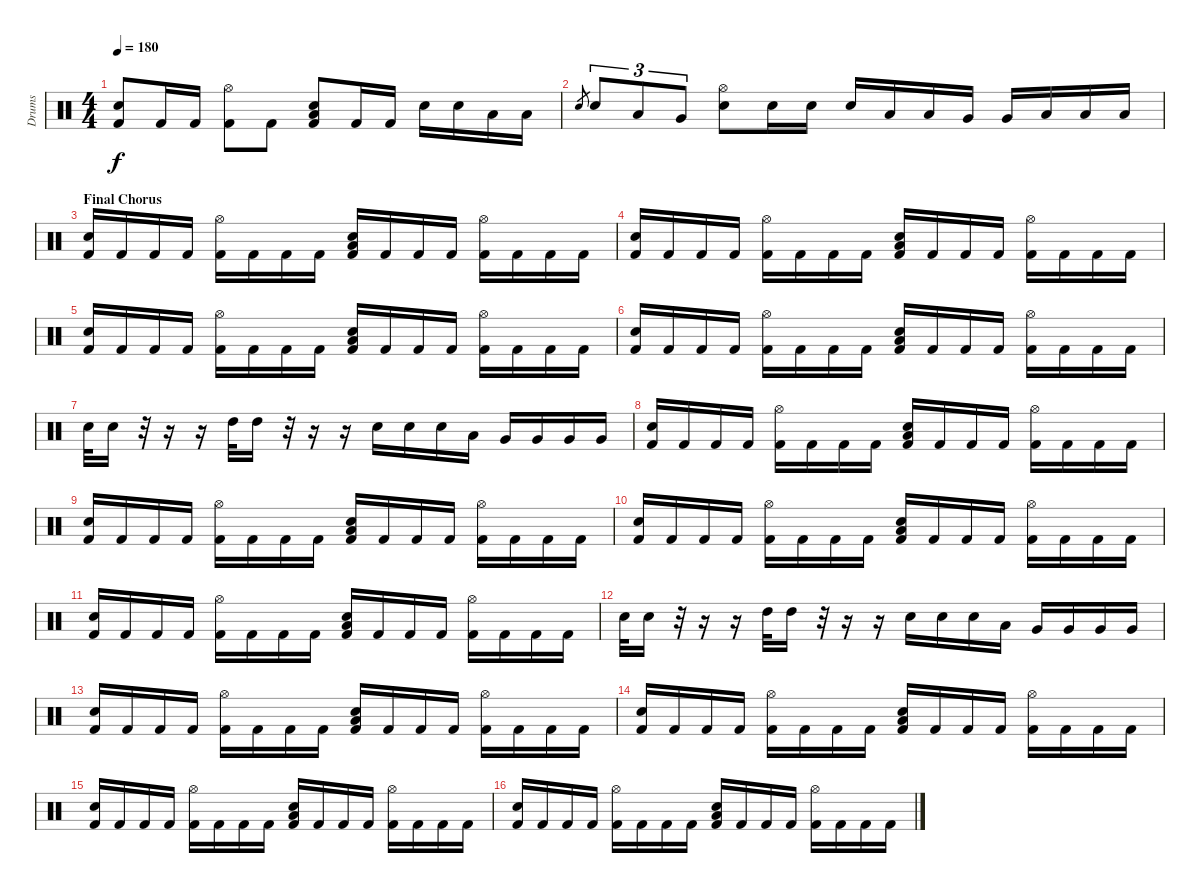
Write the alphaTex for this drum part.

\track ("Drums" "Drums") {instrument percussion}
\staff {score}
\articulation defaults
\ts (4 4)
\tempo 180
\clef neutral
\ks c
("Kick (hit) 2" "Electric Snare (hit)").8{dy f} "Kick (hit) 2".16 "Kick (hit) 2".16 ("Kick (hit) 2" "Hi-Hat (open)").8 "Kick (hit) 2".8 ("Kick (hit) 2" "Low Tom (hit)" "Electric Snare (hit)").8 "Kick (hit) 2".16 "Kick (hit) 2".16 "Electric Snare (hit)".16 "Electric Snare (hit)".16 "Low Tom (hit)".16 "Low Tom (hit)".16 |
"Electric Snare (hit)".8{gr} "Electric Snare (hit)".8{tu (3 2)} "Low Tom (hit)".8{tu (3 2)} "Very Low Tom (hit)".8{tu (3 2)} ("Electric Snare (hit)" "Hi-Hat (open)").8 "Electric Snare (hit)".16 "Electric Snare (hit)".16 "Electric Snare (hit)".16 "Low Tom (hit)".16 "Low Tom (hit)".16 "Very Low Tom (hit)".16 "Very Low Tom (hit)".16 "Low Floor Tom (hit)".16 "Low Floor Tom (hit)".16 "Low Floor Tom (hit)".16 |
\section ("" "Final Chorus")
("Kick (hit) 2" "Electric Snare (hit)").16 "Kick (hit) 2".16 "Kick (hit) 2".16 "Kick (hit) 2".16 ("Kick (hit) 2" "Hi-Hat (open)").16 "Kick (hit) 2".16 "Kick (hit) 2".16 "Kick (hit) 2".16 ("Kick (hit) 2" "Low Tom (hit)" "Electric Snare (hit)").16 "Kick (hit) 2".16 "Kick (hit) 2".16 "Kick (hit) 2".16 ("Kick (hit) 2" "Hi-Hat (open)").16 "Kick (hit) 2".16 "Kick (hit) 2".16 "Kick (hit) 2".16 |
("Kick (hit) 2" "Electric Snare (hit)").16 "Kick (hit) 2".16 "Kick (hit) 2".16 "Kick (hit) 2".16 ("Kick (hit) 2" "Hi-Hat (open)").16 "Kick (hit) 2".16 "Kick (hit) 2".16 "Kick (hit) 2".16 ("Kick (hit) 2" "Low Tom (hit)" "Electric Snare (hit)").16 "Kick (hit) 2".16 "Kick (hit) 2".16 "Kick (hit) 2".16 ("Kick (hit) 2" "Hi-Hat (open)").16 "Kick (hit) 2".16 "Kick (hit) 2".16 "Kick (hit) 2".16 |
("Kick (hit) 2" "Electric Snare (hit)").16 "Kick (hit) 2".16 "Kick (hit) 2".16 "Kick (hit) 2".16 ("Kick (hit) 2" "Hi-Hat (open)").16 "Kick (hit) 2".16 "Kick (hit) 2".16 "Kick (hit) 2".16 ("Kick (hit) 2" "Low Tom (hit)" "Electric Snare (hit)").16 "Kick (hit) 2".16 "Kick (hit) 2".16 "Kick (hit) 2".16 ("Kick (hit) 2" "Hi-Hat (open)").16 "Kick (hit) 2".16 "Kick (hit) 2".16 "Kick (hit) 2".16 |
("Kick (hit) 2" "Electric Snare (hit)").16 "Kick (hit) 2".16 "Kick (hit) 2".16 "Kick (hit) 2".16 ("Kick (hit) 2" "Hi-Hat (open)").16 "Kick (hit) 2".16 "Kick (hit) 2".16 "Kick (hit) 2".16 ("Kick (hit) 2" "Low Tom (hit)" "Electric Snare (hit)").16 "Kick (hit) 2".16 "Kick (hit) 2".16 "Kick (hit) 2".16 ("Kick (hit) 2" "Hi-Hat (open)").16 "Kick (hit) 2".16 "Kick (hit) 2".16 "Kick (hit) 2".16 |
"Electric Snare (hit)".32 "Electric Snare (hit)".16 r.32 r.16 r.16 "High Tom (hit)".32 "High Tom (hit)".16 r.32 r.16 r.16 "Electric Snare (hit)".16 "Electric Snare (hit)".16 "Electric Snare (hit)".16 "Low Tom (hit)".16 "Very Low Tom (hit)".16 "Very Low Tom (hit)".16 "Very Low Tom (hit)".16 "Very Low Tom (hit)".16 |
("Kick (hit) 2" "Electric Snare (hit)").16 "Kick (hit) 2".16 "Kick (hit) 2".16 "Kick (hit) 2".16 ("Kick (hit) 2" "Hi-Hat (open)").16 "Kick (hit) 2".16 "Kick (hit) 2".16 "Kick (hit) 2".16 ("Kick (hit) 2" "Low Tom (hit)" "Electric Snare (hit)").16 "Kick (hit) 2".16 "Kick (hit) 2".16 "Kick (hit) 2".16 ("Kick (hit) 2" "Hi-Hat (open)").16 "Kick (hit) 2".16 "Kick (hit) 2".16 "Kick (hit) 2".16 |
("Kick (hit) 2" "Electric Snare (hit)").16 "Kick (hit) 2".16 "Kick (hit) 2".16 "Kick (hit) 2".16 ("Kick (hit) 2" "Hi-Hat (open)").16 "Kick (hit) 2".16 "Kick (hit) 2".16 "Kick (hit) 2".16 ("Kick (hit) 2" "Low Tom (hit)" "Electric Snare (hit)").16 "Kick (hit) 2".16 "Kick (hit) 2".16 "Kick (hit) 2".16 ("Kick (hit) 2" "Hi-Hat (open)").16 "Kick (hit) 2".16 "Kick (hit) 2".16 "Kick (hit) 2".16 |
("Kick (hit) 2" "Electric Snare (hit)").16 "Kick (hit) 2".16 "Kick (hit) 2".16 "Kick (hit) 2".16 ("Kick (hit) 2" "Hi-Hat (open)").16 "Kick (hit) 2".16 "Kick (hit) 2".16 "Kick (hit) 2".16 ("Kick (hit) 2" "Low Tom (hit)" "Electric Snare (hit)").16 "Kick (hit) 2".16 "Kick (hit) 2".16 "Kick (hit) 2".16 ("Kick (hit) 2" "Hi-Hat (open)").16 "Kick (hit) 2".16 "Kick (hit) 2".16 "Kick (hit) 2".16 |
("Kick (hit) 2" "Electric Snare (hit)").16 "Kick (hit) 2".16 "Kick (hit) 2".16 "Kick (hit) 2".16 ("Kick (hit) 2" "Hi-Hat (open)").16 "Kick (hit) 2".16 "Kick (hit) 2".16 "Kick (hit) 2".16 ("Kick (hit) 2" "Low Tom (hit)" "Electric Snare (hit)").16 "Kick (hit) 2".16 "Kick (hit) 2".16 "Kick (hit) 2".16 ("Kick (hit) 2" "Hi-Hat (open)").16 "Kick (hit) 2".16 "Kick (hit) 2".16 "Kick (hit) 2".16 |
"Electric Snare (hit)".32 "Electric Snare (hit)".16 r.32 r.16 r.16 "High Tom (hit)".32 "High Tom (hit)".16 r.32 r.16 r.16 "Electric Snare (hit)".16 "Electric Snare (hit)".16 "Electric Snare (hit)".16 "Low Tom (hit)".16 "Very Low Tom (hit)".16 "Very Low Tom (hit)".16 "Very Low Tom (hit)".16 "Very Low Tom (hit)".16 |
("Kick (hit) 2" "Electric Snare (hit)").16 "Kick (hit) 2".16 "Kick (hit) 2".16 "Kick (hit) 2".16 ("Kick (hit) 2" "Hi-Hat (open)").16 "Kick (hit) 2".16 "Kick (hit) 2".16 "Kick (hit) 2".16 ("Kick (hit) 2" "Low Tom (hit)" "Electric Snare (hit)").16 "Kick (hit) 2".16 "Kick (hit) 2".16 "Kick (hit) 2".16 ("Kick (hit) 2" "Hi-Hat (open)").16 "Kick (hit) 2".16 "Kick (hit) 2".16 "Kick (hit) 2".16 |
("Kick (hit) 2" "Electric Snare (hit)").16 "Kick (hit) 2".16 "Kick (hit) 2".16 "Kick (hit) 2".16 ("Kick (hit) 2" "Hi-Hat (open)").16 "Kick (hit) 2".16 "Kick (hit) 2".16 "Kick (hit) 2".16 ("Kick (hit) 2" "Low Tom (hit)" "Electric Snare (hit)").16 "Kick (hit) 2".16 "Kick (hit) 2".16 "Kick (hit) 2".16 ("Kick (hit) 2" "Hi-Hat (open)").16 "Kick (hit) 2".16 "Kick (hit) 2".16 "Kick (hit) 2".16 |
("Kick (hit) 2" "Electric Snare (hit)").16 "Kick (hit) 2".16 "Kick (hit) 2".16 "Kick (hit) 2".16 ("Kick (hit) 2" "Hi-Hat (open)").16 "Kick (hit) 2".16 "Kick (hit) 2".16 "Kick (hit) 2".16 ("Kick (hit) 2" "Low Tom (hit)" "Electric Snare (hit)").16 "Kick (hit) 2".16 "Kick (hit) 2".16 "Kick (hit) 2".16 ("Kick (hit) 2" "Hi-Hat (open)").16 "Kick (hit) 2".16 "Kick (hit) 2".16 "Kick (hit) 2".16 |
("Kick (hit) 2" "Electric Snare (hit)").16 "Kick (hit) 2".16 "Kick (hit) 2".16 "Kick (hit) 2".16 ("Kick (hit) 2" "Hi-Hat (open)").16 "Kick (hit) 2".16 "Kick (hit) 2".16 "Kick (hit) 2".16 ("Kick (hit) 2" "Low Tom (hit)" "Electric Snare (hit)").16 "Kick (hit) 2".16 "Kick (hit) 2".16 "Kick (hit) 2".16 ("Kick (hit) 2" "Hi-Hat (open)").16 "Kick (hit) 2".16 "Kick (hit) 2".16 "Kick (hit) 2".16
